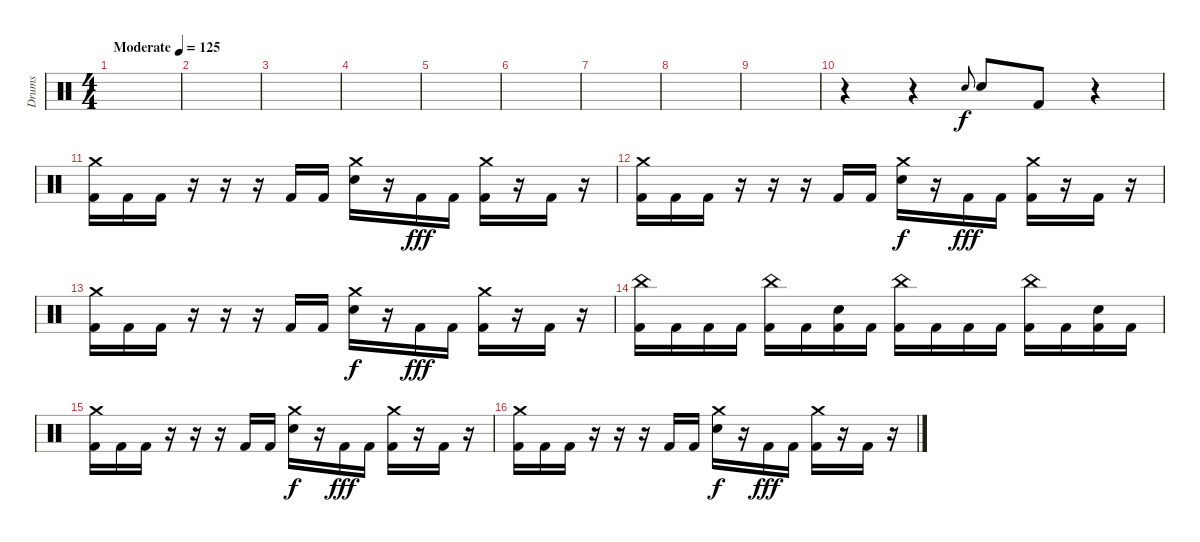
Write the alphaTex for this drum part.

\track ("Drums" "Drums") {instrument percussion}
\staff {score}
\articulation defaults
\ts (4 4)
\tempo (125 "Moderate")
\clef neutral
\ks c
|
|
|
|
|
|
|
|
|
r.4 r.4 "Electric Snare (hit)".8{gr onbeat} "Electric Snare (hit)".8 "Kick (hit) 2".8 r.4 |
("Crash medium (hit)" "Kick (hit) 2").16 "Kick (hit) 2".16 "Kick (hit) 2".16 r.16 r.16 r.16 "Kick (hit) 2".16 "Kick (hit) 2".16 ("Crash medium (hit)" "Electric Snare (hit)").16{dy f} r.16 "Kick (hit) 2".16{dy fff} "Kick (hit) 2".16 ("Crash medium (hit)" "Kick (hit) 2").16 r.16 "Kick (hit) 2".16 r.16 |
("Crash medium (hit)" "Kick (hit) 2").16 "Kick (hit) 2".16 "Kick (hit) 2".16 r.16 r.16 r.16 "Kick (hit) 2".16 "Kick (hit) 2".16 ("Crash medium (hit)" "Electric Snare (hit)").16{dy f} r.16 "Kick (hit) 2".16{dy fff} "Kick (hit) 2".16 ("Crash medium (hit)" "Kick (hit) 2").16 r.16 "Kick (hit) 2".16 r.16 |
("Crash medium (hit)" "Kick (hit) 2").16 "Kick (hit) 2".16 "Kick (hit) 2".16 r.16 r.16 r.16 "Kick (hit) 2".16 "Kick (hit) 2".16 ("Crash medium (hit)" "Electric Snare (hit)").16{dy f} r.16 "Kick (hit) 2".16{dy fff} "Kick (hit) 2".16 ("Crash medium (hit)" "Kick (hit) 2").16 r.16 "Kick (hit) 2".16 r.16 |
("China (hit)" "Kick (hit) 2").16 "Kick (hit) 2".16 "Kick (hit) 2".16 "Kick (hit) 2".16 ("China (hit)" "Kick (hit) 2").16 "Kick (hit) 2".16 ("Electric Snare (hit)" "Kick (hit) 2").16 "Kick (hit) 2".16 ("China (hit)" "Kick (hit) 2").16 "Kick (hit) 2".16 "Kick (hit) 2".16 "Kick (hit) 2".16 ("China (hit)" "Kick (hit) 2").16 "Kick (hit) 2".16 ("Electric Snare (hit)" "Kick (hit) 2").16 "Kick (hit) 2".16 |
("Crash medium (hit)" "Kick (hit) 2").16 "Kick (hit) 2".16 "Kick (hit) 2".16 r.16 r.16 r.16 "Kick (hit) 2".16 "Kick (hit) 2".16 ("Crash medium (hit)" "Electric Snare (hit)").16{dy f} r.16 "Kick (hit) 2".16{dy fff} "Kick (hit) 2".16 ("Crash medium (hit)" "Kick (hit) 2").16 r.16 "Kick (hit) 2".16 r.16 |
("Crash medium (hit)" "Kick (hit) 2").16 "Kick (hit) 2".16 "Kick (hit) 2".16 r.16 r.16 r.16 "Kick (hit) 2".16 "Kick (hit) 2".16 ("Crash medium (hit)" "Electric Snare (hit)").16{dy f} r.16 "Kick (hit) 2".16{dy fff} "Kick (hit) 2".16 ("Crash medium (hit)" "Kick (hit) 2").16 r.16 "Kick (hit) 2".16 r.16
